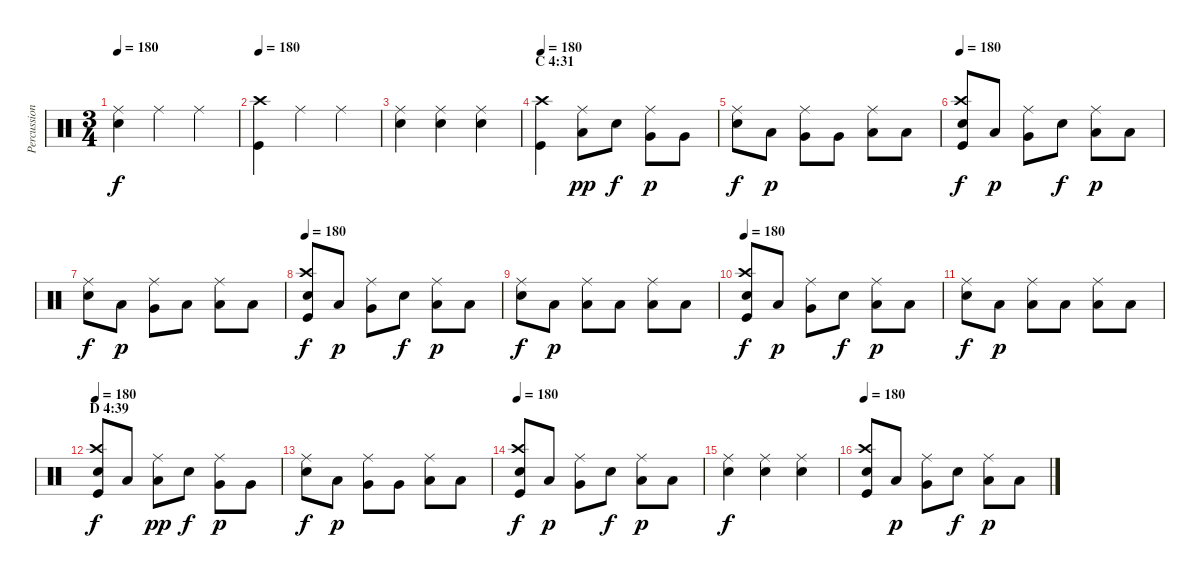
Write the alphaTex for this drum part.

\track ("Percussion" "Percussion") {instrument percussion}
\staff {score}
\articulation defaults
\ts (3 4)
\tempo 180
\clef neutral
\ks c
("Ride (middle)" "Electric Snare (hit)").4{dy f} "Ride (middle)".4 "Ride (middle)".4 |
\tempo 180
("Crash high (hit)" "Kick (hit)").4 "Ride (middle)".4 "Ride (middle)".4 |
("Ride (middle)" "Electric Snare (hit)").4 ("Ride (middle)" "Electric Snare (hit)").4 ("Ride (middle)" "Electric Snare (hit)").4 |
\section ("" "C 4:31")
\tempo 180
("Crash high (hit)" "Kick (hit)").4 ("Ride (middle)" "Low Tom (hit)").8{dy pp} "Electric Snare (hit)".8{dy f} ("Ride (middle)" "Very Low Tom (hit)").8{dy p} "Very Low Tom (hit)".8 |
("Ride (middle)" "Electric Snare (hit)").8{dy f} "Low Tom (hit)".8{dy p} ("Ride (middle)" "Very Low Tom (hit)").8 "Very Low Tom (hit)".8 ("Ride (middle)" "Low Floor Tom (hit)").8 "Low Floor Tom (hit)".8 |
\tempo 180
("Crash high (hit)" "Electric Snare (hit)" "Kick (hit)").8{dy f} "Low Tom (hit)".8{dy p} ("Ride (middle)" "Very Low Tom (hit)").8 "Electric Snare (hit)".8{dy f} ("Ride (middle)" "Low Floor Tom (hit)").8{dy p} "Low Floor Tom (hit)".8 |
("Ride (middle)" "Electric Snare (hit)").8{dy f} "Low Tom (hit)".8{dy p} ("Ride (middle)" "Very Low Tom (hit)").8 "Low Floor Tom (hit)".8 ("Ride (middle)" "Low Floor Tom (hit)").8 "Low Floor Tom (hit)".8 |
\tempo 180
("Crash high (hit)" "Electric Snare (hit)" "Kick (hit)").8{dy f} "Low Tom (hit)".8{dy p} ("Ride (middle)" "Very Low Tom (hit)").8 "Electric Snare (hit)".8{dy f} ("Ride (middle)" "Low Floor Tom (hit)").8{dy p} "Low Floor Tom (hit)".8 |
("Ride (middle)" "Electric Snare (hit)").8{dy f} "Low Tom (hit)".8{dy p} ("Ride (middle)" "Low Floor Tom (hit)").8 "Low Floor Tom (hit)".8 ("Ride (middle)" "Low Floor Tom (hit)").8 "Low Floor Tom (hit)".8 |
\tempo 180
("Crash high (hit)" "Electric Snare (hit)" "Kick (hit)").8{dy f} "Low Tom (hit)".8{dy p} ("Ride (middle)" "Very Low Tom (hit)").8 "Electric Snare (hit)".8{dy f} ("Ride (middle)" "Low Floor Tom (hit)").8{dy p} "Low Floor Tom (hit)".8 |
("Ride (middle)" "Electric Snare (hit)").8{dy f} "Low Tom (hit)".8{dy p} ("Ride (middle)" "Low Floor Tom (hit)").8 "Low Floor Tom (hit)".8 ("Ride (middle)" "Low Floor Tom (hit)").8 "Low Floor Tom (hit)".8 |
\section ("" "D 4:39")
\tempo 180
("Crash high (hit)" "Electric Snare (hit)" "Kick (hit)").8{dy f} "Low Tom (hit)".8 ("Ride (middle)" "Low Tom (hit)").8{dy pp} "Electric Snare (hit)".8{dy f} ("Ride (middle)" "Very Low Tom (hit)").8{dy p} "Very Low Tom (hit)".8 |
("Ride (middle)" "Electric Snare (hit)").8{dy f} "Low Tom (hit)".8{dy p} ("Ride (middle)" "Very Low Tom (hit)").8 "Very Low Tom (hit)".8 ("Ride (middle)" "Low Floor Tom (hit)").8 "Low Floor Tom (hit)".8 |
\tempo 180
("Crash high (hit)" "Electric Snare (hit)" "Kick (hit)").8{dy f} "Low Tom (hit)".8{dy p} ("Ride (middle)" "Very Low Tom (hit)").8 "Electric Snare (hit)".8{dy f} ("Ride (middle)" "Low Floor Tom (hit)").8{dy p} "Low Floor Tom (hit)".8 |
("Ride (middle)" "Electric Snare (hit)").4{dy f} ("Ride (middle)" "Electric Snare (hit)").4 ("Ride (middle)" "Electric Snare (hit)").4 |
\tempo 180
("Crash high (hit)" "Electric Snare (hit)" "Kick (hit)").8 "Low Tom (hit)".8{dy p} ("Ride (middle)" "Very Low Tom (hit)").8 "Electric Snare (hit)".8{dy f} ("Ride (middle)" "Low Floor Tom (hit)").8{dy p} "Low Floor Tom (hit)".8
